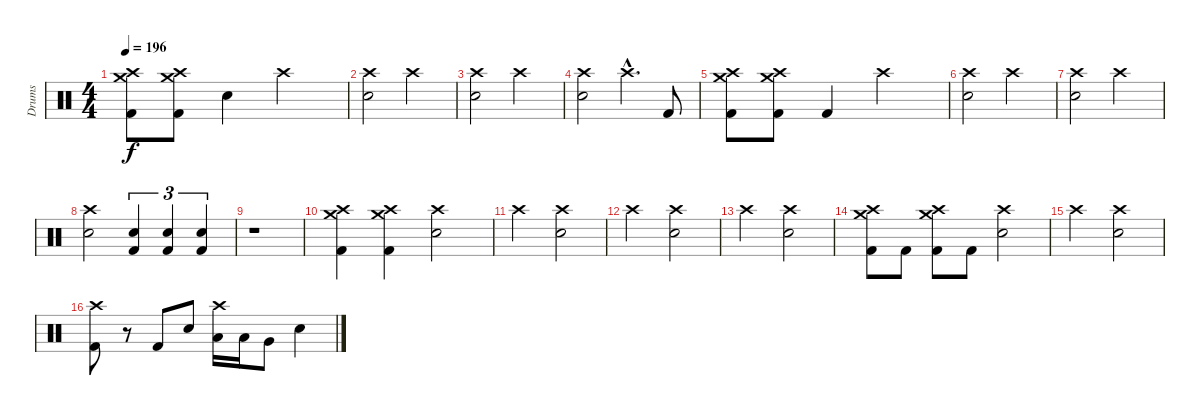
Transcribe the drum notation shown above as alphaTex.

\track ("Drums" "Drums") {instrument percussion}
\staff {score}
\articulation defaults
\ts (4 4)
\tempo 196
\clef neutral
\ks c
("Crash medium (hit)" "Crash high (hit)" "Kick (hit) 2").8{dy f} ("Crash medium (hit)" "Crash high (hit)" "Kick (hit) 2").8 "Electric Snare (hit)".4 "Crash high (hit)".2 |
("Crash high (hit)" "Electric Snare (hit)").2 "Crash high (hit)".2 |
("Crash high (hit)" "Electric Snare (hit)").2 "Crash high (hit)".2 |
("Crash high (hit)" "Electric Snare (hit)").2 "Crash high (hit)"{hac}.4{d} "Kick (hit) 2".8 |
("Crash medium (hit)" "Crash high (hit)" "Kick (hit) 2").8 ("Crash medium (hit)" "Crash high (hit)" "Kick (hit) 2").8 "Kick (hit) 2".4 "Crash high (hit)".2 |
("Crash high (hit)" "Electric Snare (hit)").2 "Crash high (hit)".2 |
("Crash high (hit)" "Electric Snare (hit)").2 "Crash high (hit)".2 |
("Crash high (hit)" "Electric Snare (hit)").2 ("Electric Snare (hit)" "Kick (hit) 2").4{tu (3 2)} ("Electric Snare (hit)" "Kick (hit) 2").4{tu (3 2)} ("Electric Snare (hit)" "Kick (hit) 2").4{tu (3 2)} |
r.1 |
("Crash medium (hit)" "Crash high (hit)" "Kick (hit) 2").4 ("Crash medium (hit)" "Crash high (hit)" "Kick (hit) 2").4 ("Crash high (hit)" "Electric Snare (hit)").2 |
"Crash high (hit)".2 ("Crash high (hit)" "Electric Snare (hit)").2 |
"Crash high (hit)".2 ("Crash high (hit)" "Electric Snare (hit)").2 |
"Crash high (hit)".2 ("Crash high (hit)" "Electric Snare (hit)").2 |
("Crash medium (hit)" "Crash high (hit)" "Kick (hit) 2").8 "Kick (hit) 2".8 ("Crash medium (hit)" "Crash high (hit)" "Kick (hit) 2").8 "Kick (hit) 2".8 ("Crash high (hit)" "Electric Snare (hit)").2 |
"Crash high (hit)".2 ("Crash high (hit)" "Electric Snare (hit)").2 |
("Crash high (hit)" "Kick (hit) 2").8 r.8 "Kick (hit) 2".8 "Electric Snare (hit)".8 ("Crash high (hit)" "Low Tom (hit)").16 "Low Tom (hit)".16 "Very Low Tom (hit)".8 "Electric Snare (hit)".4
